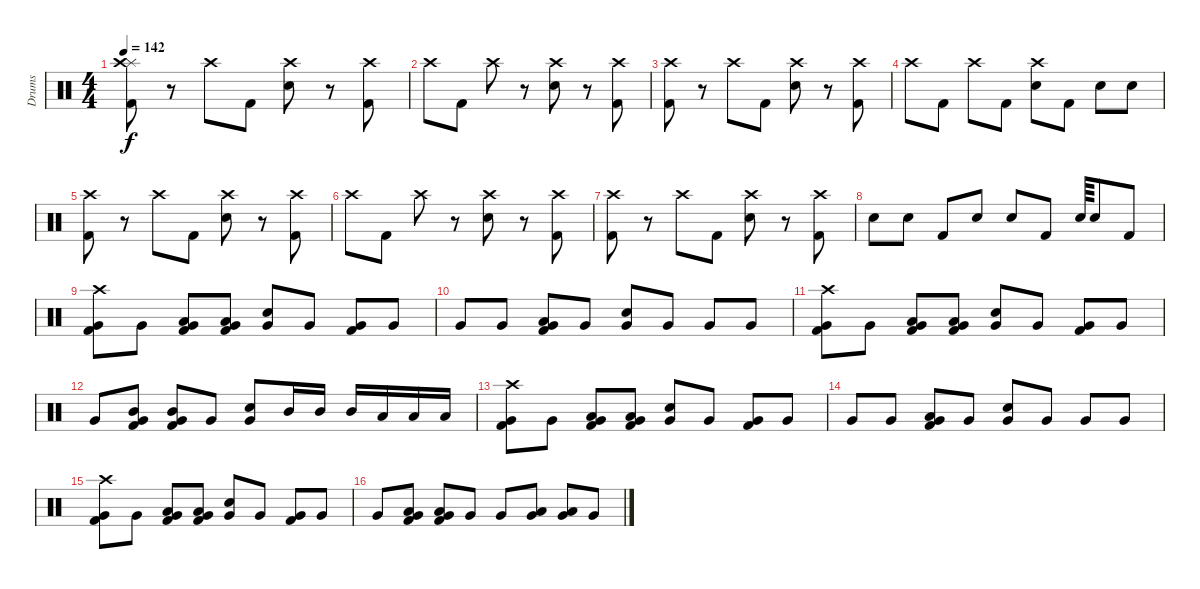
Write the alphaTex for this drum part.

\track ("Drums" "Drums") {instrument percussion}
\staff {score}
\articulation defaults
\ts (4 4)
\tempo 142
\clef neutral
\ks c
("Splash (hit)" "Crash high (hit)" "Kick (hit) 2").8{dy f} r.8 "Crash high (hit)".8 "Kick (hit) 2".8 ("Crash high (hit)" "Snare (hit) 2").8 r.8 ("Crash high (hit)" "Kick (hit) 2").8 |
"Crash high (hit)".8 "Kick (hit) 2".8 "Crash high (hit)".8 r.8 ("Crash high (hit)" "Snare (hit) 2").8 r.8 ("Crash high (hit)" "Kick (hit) 2").8 |
("Crash high (hit)" "Kick (hit) 2").8 r.8 "Crash high (hit)".8 "Kick (hit) 2".8 ("Crash high (hit)" "Snare (hit) 2").8 r.8 ("Crash high (hit)" "Kick (hit) 2").8 |
"Crash high (hit)".8 "Kick (hit) 2".8 "Crash high (hit)".8 "Kick (hit) 2".8 ("Crash high (hit)" "Snare (hit) 2").8 "Kick (hit) 2".8 "Snare (hit) 2".8 "Snare (hit) 2".8 |
("Crash high (hit)" "Kick (hit) 2").8 r.8 "Crash high (hit)".8 "Kick (hit) 2".8 ("Crash high (hit)" "Snare (hit) 2").8 r.8 ("Crash high (hit)" "Kick (hit) 2").8 |
"Crash high (hit)".8 "Kick (hit) 2".8 "Crash high (hit)".8 r.8 ("Crash high (hit)" "Snare (hit) 2").8 r.8 ("Crash high (hit)" "Kick (hit) 2").8 |
("Crash high (hit)" "Kick (hit) 2").8 r.8 "Crash high (hit)".8 "Kick (hit) 2".8 ("Crash high (hit)" "Snare (hit) 2").8 r.8 ("Crash high (hit)" "Kick (hit) 2").8 |
"Snare (hit) 2".8 "Snare (hit) 2".8 "Kick (hit) 2".8 "Snare (hit) 2".8 "Snare (hit) 2".8 "Kick (hit) 2".8 "Snare (hit) 2".64 "Snare (hit) 2".8 "Kick (hit) 2".8 |
("Crash high (hit)" "Very Low Tom (hit)" "Kick (hit) 2").8 "Very Low Tom (hit)".8 ("Very Low Tom (hit)" "Low Tom (hit)" "Kick (hit) 2").8 ("Very Low Tom (hit)" "Low Tom (hit)" "Kick (hit) 2").8 ("Very Low Tom (hit)" "Snare (hit) 2").8 "Very Low Tom (hit)".8 ("Very Low Tom (hit)" "Kick (hit) 2").8 "Very Low Tom (hit)".8 |
"Very Low Tom (hit)".8 "Very Low Tom (hit)".8 ("Very Low Tom (hit)" "Low Tom (hit)" "Kick (hit) 2").8 "Very Low Tom (hit)".8 ("Very Low Tom (hit)" "Snare (hit) 2").8 "Very Low Tom (hit)".8 "Very Low Tom (hit)".8 "Very Low Tom (hit)".8 |
("Crash high (hit)" "Very Low Tom (hit)" "Kick (hit) 2").8 "Very Low Tom (hit)".8 ("Very Low Tom (hit)" "Low Tom (hit)" "Kick (hit) 2").8 ("Very Low Tom (hit)" "Low Tom (hit)" "Kick (hit) 2").8 ("Very Low Tom (hit)" "Snare (hit) 2").8 "Very Low Tom (hit)".8 ("Very Low Tom (hit)" "Kick (hit) 2").8 "Very Low Tom (hit)".8 |
"Very Low Tom (hit)".8 ("Very Low Tom (hit)" "Mid Tom (hit)" "Kick (hit) 2").8 ("Very Low Tom (hit)" "Mid Tom (hit)" "Kick (hit) 2").8 "Very Low Tom (hit)".8 ("Very Low Tom (hit)" "Snare (hit) 2").8 "Mid Tom (hit)".16 "Mid Tom (hit)".16 "Mid Tom (hit)".16 "Low Tom (hit)".16 "Low Tom (hit)".16 "Low Tom (hit)".16 |
("Crash high (hit)" "Very Low Tom (hit)" "Kick (hit) 2").8 "Very Low Tom (hit)".8 ("Very Low Tom (hit)" "Low Tom (hit)" "Kick (hit) 2").8 ("Very Low Tom (hit)" "Low Tom (hit)" "Kick (hit) 2").8 ("Very Low Tom (hit)" "Snare (hit) 2").8 "Very Low Tom (hit)".8 ("Very Low Tom (hit)" "Kick (hit) 2").8 "Very Low Tom (hit)".8 |
"Very Low Tom (hit)".8 "Very Low Tom (hit)".8 ("Very Low Tom (hit)" "Low Tom (hit)" "Kick (hit) 2").8 "Very Low Tom (hit)".8 ("Very Low Tom (hit)" "Snare (hit) 2").8 "Very Low Tom (hit)".8 "Very Low Tom (hit)".8 "Very Low Tom (hit)".8 |
("Crash high (hit)" "Very Low Tom (hit)" "Kick (hit) 2").8 "Very Low Tom (hit)".8 ("Very Low Tom (hit)" "Low Tom (hit)" "Kick (hit) 2").8 ("Very Low Tom (hit)" "Low Tom (hit)" "Kick (hit) 2").8 ("Very Low Tom (hit)" "Snare (hit) 2").8 "Very Low Tom (hit)".8 ("Very Low Tom (hit)" "Kick (hit) 2").8 "Very Low Tom (hit)".8 |
"Very Low Tom (hit)".8 ("Very Low Tom (hit)" "Low Tom (hit)" "Kick (hit) 2").8 ("Very Low Tom (hit)" "Low Tom (hit)" "Kick (hit) 2").8 "Very Low Tom (hit)".8 "Very Low Tom (hit)".8 ("Very Low Tom (hit)" "Low Tom (hit)").8 ("Very Low Tom (hit)" "Low Tom (hit)").8 "Very Low Tom (hit)".8
